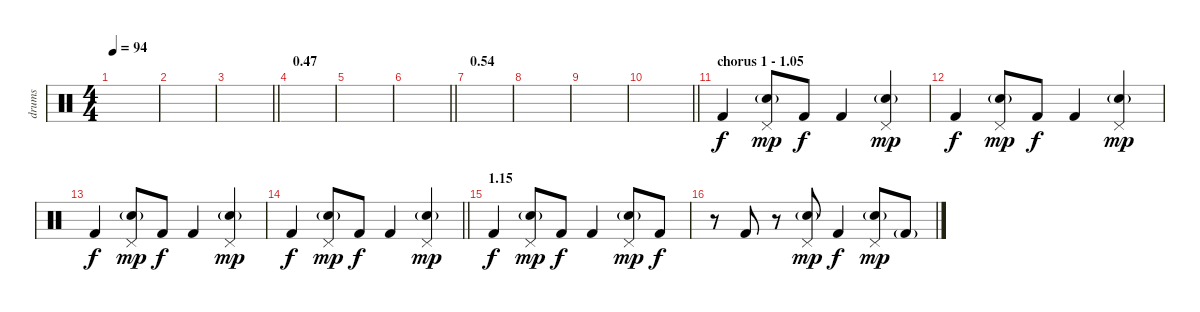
\track ("drums" "drums") {instrument percussion}
\staff {score}
\articulation defaults
\ts (4 4)
\tempo 94
\clef neutral
\ks c
|
|
\barLineRight lightlight
|
\section ("" "0.47")
|
|
\barLineRight lightlight
|
\section ("" "0.54")
|
|
|
\barLineRight lightlight
|
\section ("" "chorus 1 - 1.05")
"Kick (hit) 2".4 ("Pedal Hi-Hat (hit)" "Electric Snare (hit)"{g}).8{dy mp} "Kick (hit) 2".8{dy f} "Kick (hit) 2".4 ("Pedal Hi-Hat (hit)" "Electric Snare (hit)"{g}).4{dy mp} |
"Kick (hit) 2".4{dy f} ("Pedal Hi-Hat (hit)" "Electric Snare (hit)"{g}).8{dy mp} "Kick (hit) 2".8{dy f} "Kick (hit) 2".4 ("Pedal Hi-Hat (hit)" "Electric Snare (hit)"{g}).4{dy mp} |
"Kick (hit) 2".4{dy f} ("Pedal Hi-Hat (hit)" "Electric Snare (hit)"{g}).8{dy mp} "Kick (hit) 2".8{dy f} "Kick (hit) 2".4 ("Pedal Hi-Hat (hit)" "Electric Snare (hit)"{g}).4{dy mp} |
\barLineRight lightlight "Kick (hit) 2".4{dy f}
("Pedal Hi-Hat (hit)" "Electric Snare (hit)"{g}).8{dy mp} "Kick (hit) 2".8{dy f} "Kick (hit) 2".4 ("Pedal Hi-Hat (hit)" "Electric Snare (hit)"{g}).4{dy mp} |
\section ("" "1.15")
"Kick (hit) 2".4{dy f} ("Pedal Hi-Hat (hit)" "Electric Snare (hit)"{g}).8{dy mp} "Kick (hit) 2".8{dy f} "Kick (hit) 2".4 ("Pedal Hi-Hat (hit)" "Electric Snare (hit)"{g}).8{dy mp} "Kick (hit) 2".8{dy f} |
r.8 "Kick (hit) 2".8 r.8 ("Pedal Hi-Hat (hit)" "Electric Snare (hit)"{g}).8{dy mp} "Kick (hit) 2".4{dy f} ("Pedal Hi-Hat (hit)" "Electric Snare (hit)"{g}).8{dy mp} "Kick (hit) 2"{g}.8
